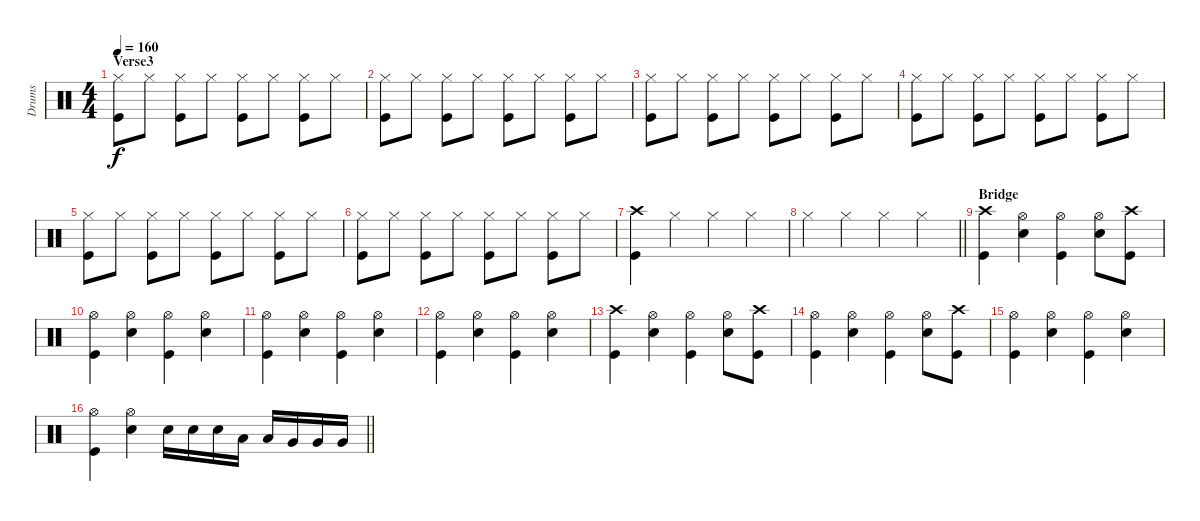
\track ("Drums" "Drums") {instrument percussion}
\staff {score}
\articulation defaults
\ts (4 4)
\section ("" "Verse3")
\tempo 160
\clef neutral
\ks c
("Kick (hit)" "Hi-Hat (closed)").8{dy f} "Hi-Hat (closed)".8 ("Kick (hit)" "Hi-Hat (closed)").8 "Hi-Hat (closed)".8 ("Kick (hit)" "Hi-Hat (closed)").8 "Hi-Hat (closed)".8 ("Kick (hit)" "Hi-Hat (closed)").8 "Hi-Hat (closed)".8 |
("Kick (hit)" "Hi-Hat (closed)").8 "Hi-Hat (closed)".8 ("Kick (hit)" "Hi-Hat (closed)").8 "Hi-Hat (closed)".8 ("Kick (hit)" "Hi-Hat (closed)").8 "Hi-Hat (closed)".8 ("Kick (hit)" "Hi-Hat (closed)").8 "Hi-Hat (closed)".8 |
("Kick (hit)" "Hi-Hat (closed)").8 "Hi-Hat (closed)".8 ("Kick (hit)" "Hi-Hat (closed)").8 "Hi-Hat (closed)".8 ("Kick (hit)" "Hi-Hat (closed)").8 "Hi-Hat (closed)".8 ("Kick (hit)" "Hi-Hat (closed)").8 "Hi-Hat (closed)".8 |
("Kick (hit)" "Hi-Hat (closed)").8 "Hi-Hat (closed)".8 ("Kick (hit)" "Hi-Hat (closed)").8 "Hi-Hat (closed)".8 ("Kick (hit)" "Hi-Hat (closed)").8 "Hi-Hat (closed)".8 ("Kick (hit)" "Hi-Hat (closed)").8 "Hi-Hat (closed)".8 |
("Kick (hit)" "Hi-Hat (closed)").8 "Hi-Hat (closed)".8 ("Kick (hit)" "Hi-Hat (closed)").8 "Hi-Hat (closed)".8 ("Kick (hit)" "Hi-Hat (closed)").8 "Hi-Hat (closed)".8 ("Kick (hit)" "Hi-Hat (closed)").8 "Hi-Hat (closed)".8 |
("Kick (hit)" "Hi-Hat (closed)").8 "Hi-Hat (closed)".8 ("Kick (hit)" "Hi-Hat (closed)").8 "Hi-Hat (closed)".8 ("Kick (hit)" "Hi-Hat (closed)").8 "Hi-Hat (closed)".8 ("Kick (hit)" "Hi-Hat (closed)").8 "Hi-Hat (closed)".8 |
("Kick (hit)" "Crash high (hit)").4 "Hi-Hat (closed)".4 "Hi-Hat (closed)".4 "Hi-Hat (closed)".4 |
\barLineRight lightlight "Hi-Hat (closed)".4 "Hi-Hat (closed)".4 "Hi-Hat (closed)".4 "Hi-Hat (closed)".4
|
\section ("" "Bridge")
("Kick (hit)" "Crash high (hit)").4 ("Snare (hit) 2" "Hi-Hat (open)").4 ("Kick (hit)" "Hi-Hat (open)").4 ("Snare (hit) 2" "Hi-Hat (open)").8 ("Kick (hit)" "Crash high (hit)").8 |
("Kick (hit)" "Hi-Hat (open)").4 ("Snare (hit) 2" "Hi-Hat (open)").4 ("Kick (hit)" "Hi-Hat (open)").4 ("Snare (hit) 2" "Hi-Hat (open)").4 |
("Kick (hit)" "Hi-Hat (open)").4 ("Snare (hit) 2" "Hi-Hat (open)").4 ("Kick (hit)" "Hi-Hat (open)").4 ("Snare (hit) 2" "Hi-Hat (open)").4 |
("Kick (hit)" "Hi-Hat (open)").4 ("Snare (hit) 2" "Hi-Hat (open)").4 ("Kick (hit)" "Hi-Hat (open)").4 ("Snare (hit) 2" "Hi-Hat (open)").4 |
("Kick (hit)" "Crash high (hit)").4 ("Snare (hit) 2" "Hi-Hat (open)").4 ("Kick (hit)" "Hi-Hat (open)").4 ("Snare (hit) 2" "Hi-Hat (open)").8 ("Kick (hit)" "Crash high (hit)").8 |
("Kick (hit)" "Hi-Hat (open)").4 ("Snare (hit) 2" "Hi-Hat (open)").4 ("Kick (hit)" "Hi-Hat (open)").4 ("Snare (hit) 2" "Hi-Hat (open)").8 ("Kick (hit)" "Crash high (hit)").8 |
("Kick (hit)" "Hi-Hat (open)").4 ("Snare (hit) 2" "Hi-Hat (open)").4 ("Kick (hit)" "Hi-Hat (open)").4 ("Snare (hit) 2" "Hi-Hat (open)").4 |
\barLineRight lightlight
("Kick (hit)" "Hi-Hat (open)").4 ("Snare (hit) 2" "Hi-Hat (open)").4 "Snare (hit) 2".16 "Snare (hit) 2".16 "Snare (hit) 2".16 "Low Tom (hit)".16 "Low Tom (hit)".16 "Very Low Tom (hit)".16 "Very Low Tom (hit)".16 "Very Low Tom (hit)".16
